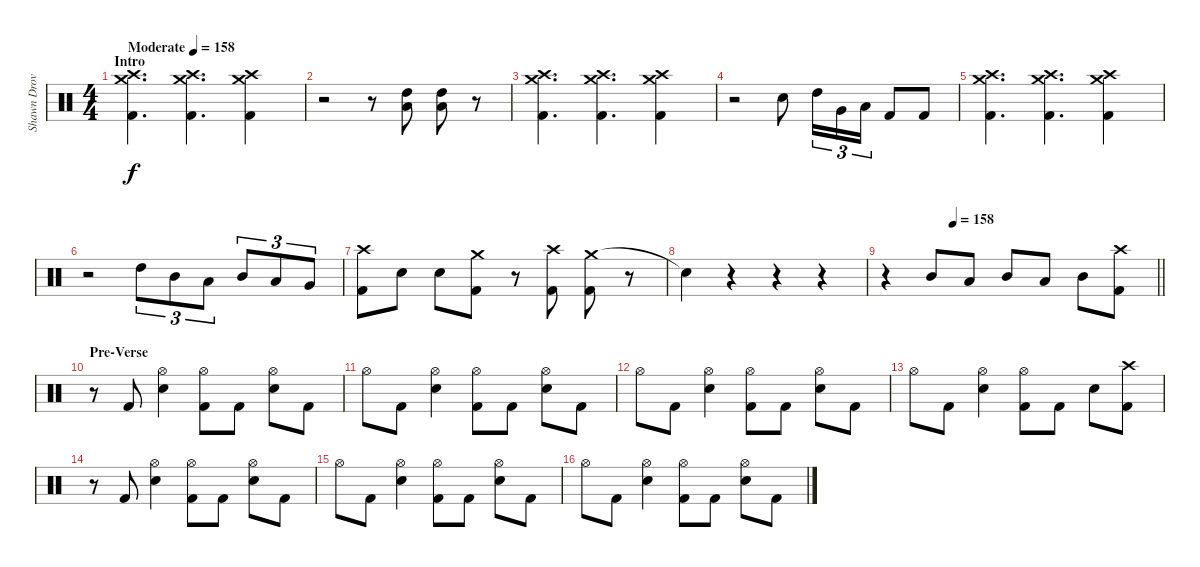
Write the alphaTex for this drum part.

\track ("Shawn Drover" "Shawn Drov") {instrument percussion}
\staff
\articulation defaults
\ts (4 4)
\section ("" "Intro")
\tempo (158 "Moderate")
\tempo 130
\tempo (158 "Moderate")
\clef neutral
\ks c
("Crash high (hit)" "Crash medium (hit)" "Kick (hit) 2").4{d dy f} ("Crash high (hit)" "Kick (hit) 2" "Crash medium (hit)").4{d} ("Crash high (hit)" "Crash medium (hit)" "Kick (hit) 2").4 |
r.2 r.8 ("High Tom (hit)" "Low Floor Tom (hit)").8 ("High Tom (hit)" "Low Floor Tom (hit)").8 r.8 |
("Crash high (hit)" "Crash medium (hit)" "Kick (hit) 2").4{d} ("Crash high (hit)" "Kick (hit) 2" "Crash medium (hit)").4{d} ("Crash high (hit)" "Crash medium (hit)" "Kick (hit) 2").4 |
r.2 "Snare (hit) 2".8 "High Tom (hit)".16{tu (3 2)} "Very Low Tom (hit)".16{tu (3 2)} "Low Floor Tom (hit)".16{tu (3 2)} "Kick (hit) 2".8 "Kick (hit) 2".8 |
("Crash high (hit)" "Crash medium (hit)" "Kick (hit) 2").4{d} ("Crash high (hit)" "Kick (hit) 2" "Crash medium (hit)").4{d} ("Crash high (hit)" "Crash medium (hit)" "Kick (hit) 2").4 |
r.2 "High Tom (hit)".8{tu (3 2)} "Mid Tom (hit)".8{tu (3 2)} "Low Tom (hit)".8{tu (3 2)} "Mid Tom (hit)".8{tu (3 2)} "Low Tom (hit)".8{tu (3 2)} "Very Low Tom (hit)".8{tu (3 2)} |
("Crash high (hit)" "Kick (hit) 2").8 "Snare (hit) 2".8 "Snare (hit) 2".8 ("Crash medium (hit)" "Kick (hit) 2").8 r.8 ("Crash high (hit)" "Kick (hit) 2").8 ("Crash medium (hit)" "Kick (hit) 2").8 r.8 |
"Snare (hit)"{t}.4 r.4 r.4 r.4 |
\tempo (158 0.25)
\barLineRight lightlight
r.4 "Mid Tom (hit)".8 "Low Tom (hit)".8 "Mid Tom (hit)".8 "Low Tom (hit)".8 "Mid Tom (hit)".8 ("Crash high (hit)" "Kick (hit) 2").8 |
\section ("" "Pre-Verse")
r.8 "Kick (hit) 2".8 ("Hi-Hat (open)" "Snare (hit) 2").4 ("Hi-Hat (open)" "Kick (hit) 2").8 "Kick (hit) 2".8 ("Hi-Hat (open)" "Snare (hit) 2").8 "Kick (hit) 2".8 |
"Hi-Hat (open)".8 "Kick (hit) 2".8 ("Hi-Hat (open)" "Snare (hit) 2").4 ("Hi-Hat (open)" "Kick (hit) 2").8 "Kick (hit) 2".8 ("Hi-Hat (open)" "Snare (hit) 2").8 "Kick (hit) 2".8 |
"Hi-Hat (open)".8 "Kick (hit) 2".8 ("Hi-Hat (open)" "Snare (hit) 2").4 ("Hi-Hat (open)" "Kick (hit) 2").8 "Kick (hit) 2".8 ("Hi-Hat (open)" "Snare (hit) 2").8 "Kick (hit) 2".8 |
"Hi-Hat (open)".8 "Kick (hit) 2".8 ("Hi-Hat (open)" "Snare (hit) 2").4 ("Hi-Hat (open)" "Kick (hit) 2").8 "Kick (hit) 2".8 "Snare (hit) 2".8 ("Crash high (hit)" "Kick (hit) 2").8 |
r.8 "Kick (hit) 2".8 ("Hi-Hat (open)" "Snare (hit) 2").4 ("Hi-Hat (open)" "Kick (hit) 2").8 "Kick (hit) 2".8 ("Hi-Hat (open)" "Snare (hit) 2").8 "Kick (hit) 2".8 |
"Hi-Hat (open)".8 "Kick (hit) 2".8 ("Hi-Hat (open)" "Snare (hit) 2").4 ("Hi-Hat (open)" "Kick (hit) 2").8 "Kick (hit) 2".8 ("Hi-Hat (open)" "Snare (hit) 2").8 "Kick (hit) 2".8 |
"Hi-Hat (open)".8 "Kick (hit) 2".8 ("Hi-Hat (open)" "Snare (hit) 2").4 ("Hi-Hat (open)" "Kick (hit) 2").8 "Kick (hit) 2".8 ("Hi-Hat (open)" "Snare (hit) 2").8 "Kick (hit) 2".8
